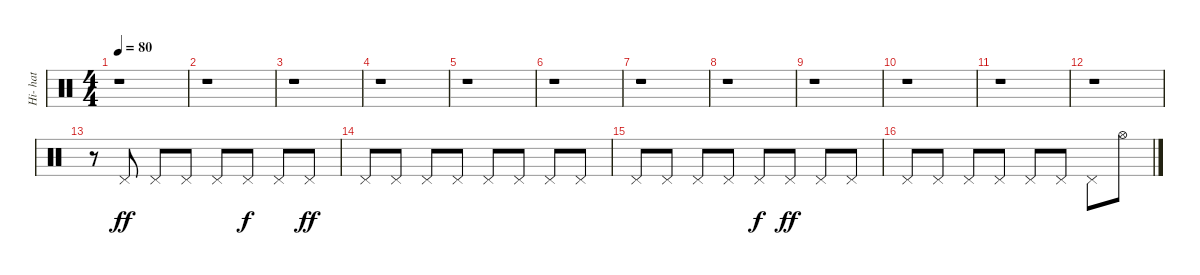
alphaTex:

\track ("Hi- hat" "Hi- hat") {instrument percussion}
\staff {score}
\articulation defaults
\ts (4 4)
\tempo 80
\clef neutral
\ks c
r.1{dy ff} |
r.1 |
r.1 |
r.1 |
r.1 |
r.1 |
r.1 |
r.1 |
r.1 |
r.1 |
r.1 |
r.1 |
r.8 "Pedal Hi-Hat (hit)".8 "Pedal Hi-Hat (hit)".8 "Pedal Hi-Hat (hit)".8 "Pedal Hi-Hat (hit)".8 "Pedal Hi-Hat (hit)".8{dy f} "Pedal Hi-Hat (hit)".8 "Pedal Hi-Hat (hit)".8{dy ff} |
"Pedal Hi-Hat (hit)".8 "Pedal Hi-Hat (hit)".8 "Pedal Hi-Hat (hit)".8 "Pedal Hi-Hat (hit)".8 "Pedal Hi-Hat (hit)".8 "Pedal Hi-Hat (hit)".8 "Pedal Hi-Hat (hit)".8 "Pedal Hi-Hat (hit)".8 |
"Pedal Hi-Hat (hit)".8 "Pedal Hi-Hat (hit)".8 "Pedal Hi-Hat (hit)".8 "Pedal Hi-Hat (hit)".8 "Pedal Hi-Hat (hit)".8{dy f} "Pedal Hi-Hat (hit)".8{dy ff} "Pedal Hi-Hat (hit)".8 "Pedal Hi-Hat (hit)".8 |
"Pedal Hi-Hat (hit)".8 "Pedal Hi-Hat (hit)".8 "Pedal Hi-Hat (hit)".8 "Pedal Hi-Hat (hit)".8 "Pedal Hi-Hat (hit)".8 "Pedal Hi-Hat (hit)".8 "Pedal Hi-Hat (hit)".8 "Hi-Hat (open)".8
